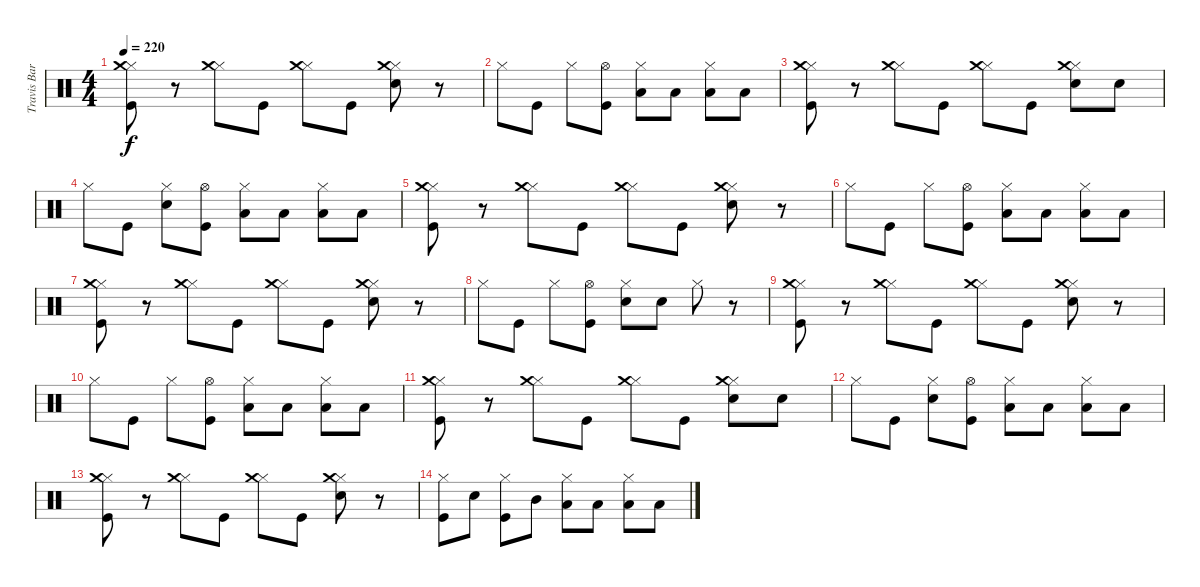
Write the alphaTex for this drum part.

\track ("Travis Barker (Drums)" "Travis Bar") {instrument percussion}
\staff {score}
\articulation defaults
\ts (4 4)
\tempo 220
\clef neutral
\ks c
("Kick (hit)" "Hi-Hat (closed)" "Crash medium (hit)").8{dy f} r.8 ("Hi-Hat (closed)" "Crash medium (hit)").8 "Kick (hit)".8 ("Hi-Hat (closed)" "Crash medium (hit)").8 "Kick (hit)".8 ("Electric Snare (hit)" "Hi-Hat (closed)" "Crash medium (hit)").8 r.8 |
"Hi-Hat (closed)".8 "Kick (hit)".8 "Hi-Hat (closed)".8 ("Kick (hit)" "Hi-Hat (open)").8 ("Low Tom (hit)" "Hi-Hat (closed)").8 "Low Tom (hit)".8 ("Low Floor Tom (hit)" "Hi-Hat (closed)").8 "Low Floor Tom (hit)".8 |
("Kick (hit)" "Hi-Hat (closed)" "Crash medium (hit)").8 r.8 ("Hi-Hat (closed)" "Crash medium (hit)").8 "Kick (hit)".8 ("Hi-Hat (closed)" "Crash medium (hit)").8 "Kick (hit)".8 ("Electric Snare (hit)" "Hi-Hat (closed)" "Crash medium (hit)").8 "Electric Snare (hit)".8 |
"Hi-Hat (closed)".8 "Kick (hit)".8 ("Electric Snare (hit)" "Hi-Hat (closed)").8 ("Kick (hit)" "Hi-Hat (open)").8 ("Low Tom (hit)" "Hi-Hat (closed)").8 "Low Tom (hit)".8 ("Low Floor Tom (hit)" "Hi-Hat (closed)").8 "Low Floor Tom (hit)".8 |
("Kick (hit)" "Hi-Hat (closed)" "Crash medium (hit)").8 r.8 ("Hi-Hat (closed)" "Crash medium (hit)").8 "Kick (hit)".8 ("Hi-Hat (closed)" "Crash medium (hit)").8 "Kick (hit)".8 ("Electric Snare (hit)" "Hi-Hat (closed)" "Crash medium (hit)").8 r.8 |
"Hi-Hat (closed)".8 "Kick (hit)".8 "Hi-Hat (closed)".8 ("Kick (hit)" "Hi-Hat (open)").8 ("Low Tom (hit)" "Hi-Hat (closed)").8 "Low Tom (hit)".8 ("Low Floor Tom (hit)" "Hi-Hat (closed)").8 "Low Floor Tom (hit)".8 |
("Kick (hit)" "Hi-Hat (closed)" "Crash medium (hit)").8 r.8 ("Hi-Hat (closed)" "Crash medium (hit)").8 "Kick (hit)".8 ("Hi-Hat (closed)" "Crash medium (hit)").8 "Kick (hit)".8 ("Electric Snare (hit)" "Hi-Hat (closed)" "Crash medium (hit)").8 r.8 |
"Hi-Hat (closed)".8 "Kick (hit)".8 "Hi-Hat (closed)".8 ("Kick (hit)" "Hi-Hat (open)").8 ("Electric Snare (hit)" "Hi-Hat (closed)").8 "Electric Snare (hit)".8 "Hi-Hat (closed)".8 r.8 |
("Kick (hit)" "Hi-Hat (closed)" "Crash medium (hit)").8 r.8 ("Hi-Hat (closed)" "Crash medium (hit)").8 "Kick (hit)".8 ("Hi-Hat (closed)" "Crash medium (hit)").8 "Kick (hit)".8 ("Electric Snare (hit)" "Hi-Hat (closed)" "Crash medium (hit)").8 r.8 |
"Hi-Hat (closed)".8 "Kick (hit)".8 "Hi-Hat (closed)".8 ("Kick (hit)" "Hi-Hat (open)").8 ("Low Tom (hit)" "Hi-Hat (closed)").8 "Low Tom (hit)".8 ("Low Floor Tom (hit)" "Hi-Hat (closed)").8 "Low Floor Tom (hit)".8 |
("Kick (hit)" "Hi-Hat (closed)" "Crash medium (hit)").8 r.8 ("Hi-Hat (closed)" "Crash medium (hit)").8 "Kick (hit)".8 ("Hi-Hat (closed)" "Crash medium (hit)").8 "Kick (hit)".8 ("Electric Snare (hit)" "Hi-Hat (closed)" "Crash medium (hit)").8 "Electric Snare (hit)".8 |
"Hi-Hat (closed)".8 "Kick (hit)".8 ("Electric Snare (hit)" "Hi-Hat (closed)").8 ("Kick (hit)" "Hi-Hat (open)").8 ("Low Tom (hit)" "Hi-Hat (closed)").8 "Low Tom (hit)".8 ("Low Floor Tom (hit)" "Hi-Hat (closed)").8 "Low Floor Tom (hit)".8 |
("Kick (hit)" "Hi-Hat (closed)" "Crash medium (hit)").8 r.8 ("Hi-Hat (closed)" "Crash medium (hit)").8 "Kick (hit)".8 ("Hi-Hat (closed)" "Crash medium (hit)").8 "Kick (hit)".8 ("Electric Snare (hit)" "Hi-Hat (closed)" "Crash medium (hit)").8 r.8 |
("Kick (hit)" "Hi-Hat (closed)").8 "Electric Snare (hit)".8 ("Kick (hit)" "Hi-Hat (closed)").8 "Mid Tom (hit)".8 ("Low Tom (hit)" "Hi-Hat (closed)").8 "Low Tom (hit)".8 ("Low Floor Tom (hit)" "Hi-Hat (closed)").8 "Low Floor Tom (hit)".8
